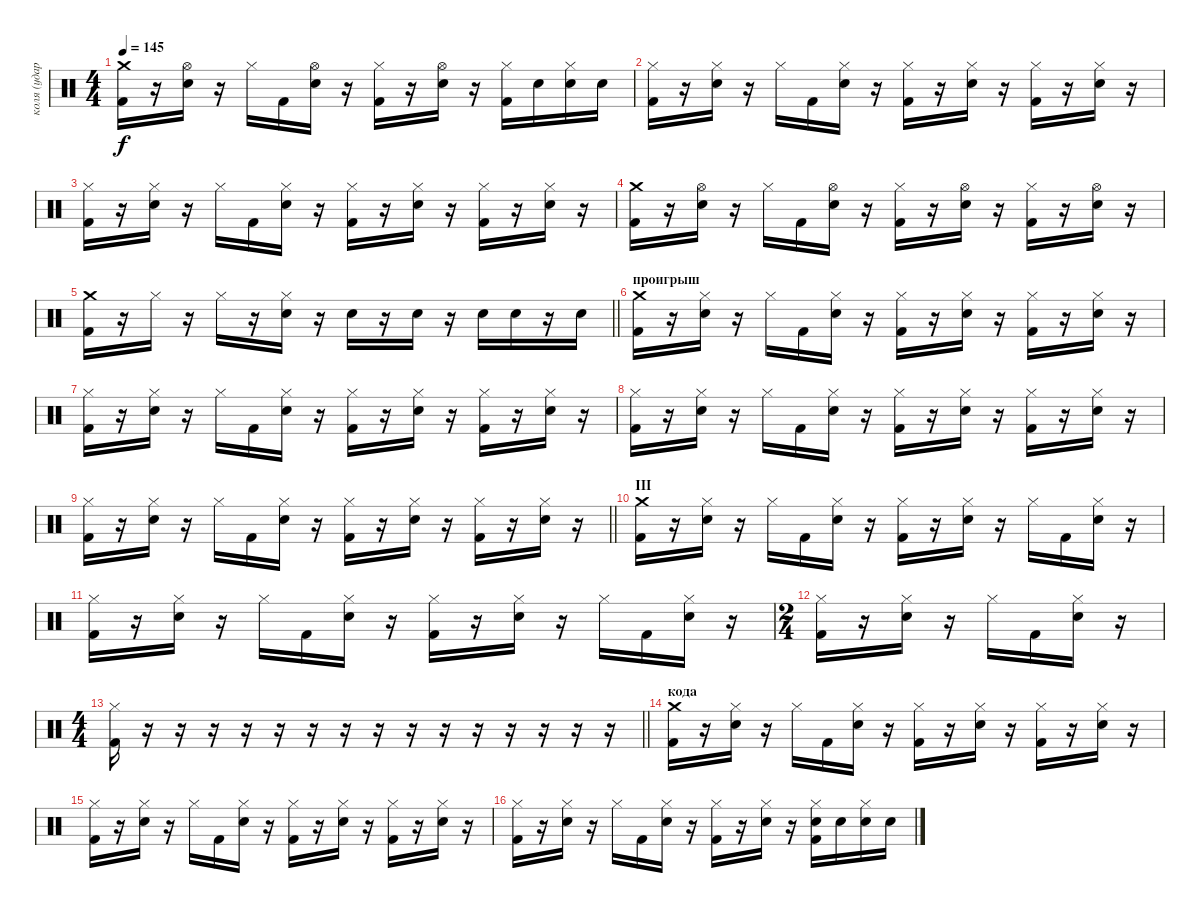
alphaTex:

\track ("коля (ударные)" "коля (удар") {instrument percussion}
\staff {score}
\articulation defaults
\ts (4 4)
\tempo 145
\clef neutral
\ks c
("Kick (hit) 2" "Crash medium (hit)").16{dy f} r.16 ("Snare (hit) 2" "Hi-Hat (open)").16 r.16 "Hi-Hat (closed)".16 "Kick (hit) 2".16 ("Snare (hit) 2" "Hi-Hat (open)").16 r.16 ("Kick (hit) 2" "Hi-Hat (closed)").16 r.16 ("Snare (hit) 2" "Hi-Hat (open)").16 r.16 ("Kick (hit) 2" "Hi-Hat (closed)").16 "Snare (hit) 2".16 ("Snare (hit) 2" "Hi-Hat (closed)").16 "Snare (hit) 2".16 |
("Kick (hit) 2" "Hi-Hat (closed)").16 r.16 ("Snare (hit) 2" "Hi-Hat (closed)").16 r.16 "Hi-Hat (closed)".16 "Kick (hit) 2".16 ("Snare (hit) 2" "Hi-Hat (closed)").16 r.16 ("Kick (hit) 2" "Hi-Hat (closed)").16 r.16 ("Snare (hit) 2" "Hi-Hat (closed)").16 r.16 ("Kick (hit) 2" "Hi-Hat (closed)").16 r.16 ("Snare (hit) 2" "Hi-Hat (closed)").16 r.16 |
("Kick (hit) 2" "Hi-Hat (closed)").16 r.16 ("Snare (hit) 2" "Hi-Hat (closed)").16 r.16 "Hi-Hat (closed)".16 "Kick (hit) 2".16 ("Snare (hit) 2" "Hi-Hat (closed)").16 r.16 ("Kick (hit) 2" "Hi-Hat (closed)").16 r.16 ("Snare (hit) 2" "Hi-Hat (closed)").16 r.16 ("Kick (hit) 2" "Hi-Hat (closed)").16 r.16 ("Snare (hit) 2" "Hi-Hat (closed)").16 r.16 |
("Kick (hit) 2" "Crash medium (hit)").16 r.16 ("Snare (hit) 2" "Hi-Hat (open)").16 r.16 "Hi-Hat (closed)".16 "Kick (hit) 2".16 ("Snare (hit) 2" "Hi-Hat (open)").16 r.16 ("Kick (hit) 2" "Hi-Hat (closed)").16 r.16 ("Snare (hit) 2" "Hi-Hat (open)").16 r.16 ("Kick (hit) 2" "Hi-Hat (closed)").16 r.16 ("Snare (hit) 2" "Hi-Hat (open)").16 r.16 |
\barLineRight lightlight
("Kick (hit) 2" "Crash medium (hit)").16 r.16 "Hi-Hat (closed)".16 r.16 "Hi-Hat (closed)".16 r.16 ("Snare (hit) 2" "Hi-Hat (closed)").16 r.16 "Snare (hit) 2".16 r.16 "Snare (hit) 2".16 r.16 "Snare (hit) 2".16 "Snare (hit) 2".16 r.16 "Snare (hit) 2".16 |
\section ("" "проигрыш")
("Kick (hit) 2" "Crash medium (hit)").16 r.16 ("Snare (hit) 2" "Hi-Hat (closed)").16 r.16 "Hi-Hat (closed)".16 "Kick (hit) 2".16 ("Snare (hit) 2" "Hi-Hat (closed)").16 r.16 ("Kick (hit) 2" "Hi-Hat (closed)").16 r.16 ("Snare (hit) 2" "Hi-Hat (closed)").16 r.16 ("Kick (hit) 2" "Hi-Hat (closed)").16 r.16 ("Snare (hit) 2" "Hi-Hat (closed)").16 r.16 |
("Kick (hit) 2" "Hi-Hat (closed)").16 r.16 ("Snare (hit) 2" "Hi-Hat (closed)").16 r.16 "Hi-Hat (closed)".16 "Kick (hit) 2".16 ("Snare (hit) 2" "Hi-Hat (closed)").16 r.16 ("Kick (hit) 2" "Hi-Hat (closed)").16 r.16 ("Snare (hit) 2" "Hi-Hat (closed)").16 r.16 ("Kick (hit) 2" "Hi-Hat (closed)").16 r.16 ("Snare (hit) 2" "Hi-Hat (closed)").16 r.16 |
("Kick (hit) 2" "Hi-Hat (closed)").16 r.16 ("Snare (hit) 2" "Hi-Hat (closed)").16 r.16 "Hi-Hat (closed)".16 "Kick (hit) 2".16 ("Snare (hit) 2" "Hi-Hat (closed)").16 r.16 ("Kick (hit) 2" "Hi-Hat (closed)").16 r.16 ("Snare (hit) 2" "Hi-Hat (closed)").16 r.16 ("Kick (hit) 2" "Hi-Hat (closed)").16 r.16 ("Snare (hit) 2" "Hi-Hat (closed)").16 r.16 |
\barLineRight lightlight
("Kick (hit) 2" "Hi-Hat (closed)").16 r.16 ("Snare (hit) 2" "Hi-Hat (closed)").16 r.16 "Hi-Hat (closed)".16 "Kick (hit) 2".16 ("Snare (hit) 2" "Hi-Hat (closed)").16 r.16 ("Kick (hit) 2" "Hi-Hat (closed)").16 r.16 ("Snare (hit) 2" "Hi-Hat (closed)").16 r.16 ("Kick (hit) 2" "Hi-Hat (closed)").16 r.16 ("Snare (hit) 2" "Hi-Hat (closed)").16 r.16 |
\section ("" "III")
("Kick (hit) 2" "Crash medium (hit)").16 r.16 ("Snare (hit) 2" "Hi-Hat (closed)").16 r.16 "Hi-Hat (closed)".16 "Kick (hit) 2".16 ("Snare (hit) 2" "Hi-Hat (closed)").16 r.16 ("Kick (hit) 2" "Hi-Hat (closed)").16 r.16 ("Snare (hit) 2" "Hi-Hat (closed)").16 r.16 "Hi-Hat (closed)".16 "Kick (hit) 2".16 ("Snare (hit) 2" "Hi-Hat (closed)").16 r.16 |
("Kick (hit) 2" "Hi-Hat (closed)").16 r.16 ("Snare (hit) 2" "Hi-Hat (closed)").16 r.16 "Hi-Hat (closed)".16 "Kick (hit) 2".16 ("Snare (hit) 2" "Hi-Hat (closed)").16 r.16 ("Kick (hit) 2" "Hi-Hat (closed)").16 r.16 ("Snare (hit) 2" "Hi-Hat (closed)").16 r.16 "Hi-Hat (closed)".16 "Kick (hit) 2".16 ("Snare (hit) 2" "Hi-Hat (closed)").16 r.16 |
\ts (2 4)
("Kick (hit) 2" "Hi-Hat (closed)").16 r.16 ("Snare (hit) 2" "Hi-Hat (closed)").16 r.16 "Hi-Hat (closed)".16 "Kick (hit) 2".16 ("Snare (hit) 2" "Hi-Hat (closed)").16 r.16 |
\ts (4 4)
\barLineRight lightlight
("Kick (hit) 2" "Hi-Hat (closed)").16 r.16 r.16 r.16 r.16 r.16 r.16 r.16 r.16 r.16 r.16 r.16 r.16 r.16 r.16 r.16 |
\section ("" "кода")
("Kick (hit) 2" "Crash medium (hit)").16 r.16 ("Snare (hit) 2" "Hi-Hat (closed)").16 r.16 "Hi-Hat (closed)".16 "Kick (hit) 2".16 ("Snare (hit) 2" "Hi-Hat (closed)").16 r.16 ("Kick (hit) 2" "Hi-Hat (closed)").16 r.16 ("Snare (hit) 2" "Hi-Hat (closed)").16 r.16 ("Kick (hit) 2" "Hi-Hat (closed)").16 r.16 ("Snare (hit) 2" "Hi-Hat (closed)").16 r.16 |
("Kick (hit) 2" "Hi-Hat (closed)").16 r.16 ("Snare (hit) 2" "Hi-Hat (closed)").16 r.16 "Hi-Hat (closed)".16 "Kick (hit) 2".16 ("Snare (hit) 2" "Hi-Hat (closed)").16 r.16 ("Kick (hit) 2" "Hi-Hat (closed)").16 r.16 ("Snare (hit) 2" "Hi-Hat (closed)").16 r.16 ("Kick (hit) 2" "Hi-Hat (closed)").16 r.16 ("Snare (hit) 2" "Hi-Hat (closed)").16 r.16 |
("Kick (hit) 2" "Hi-Hat (closed)").16 r.16 ("Snare (hit) 2" "Hi-Hat (closed)").16 r.16 "Hi-Hat (closed)".16 "Kick (hit) 2".16 ("Snare (hit) 2" "Hi-Hat (closed)").16 r.16 ("Kick (hit) 2" "Hi-Hat (closed)").16 r.16 ("Snare (hit) 2" "Hi-Hat (closed)").16 r.16 ("Kick (hit) 2" "Snare (hit) 2" "Hi-Hat (closed)").16 "Snare (hit) 2".16 ("Snare (hit) 2" "Hi-Hat (closed)").16 "Snare (hit) 2".16
